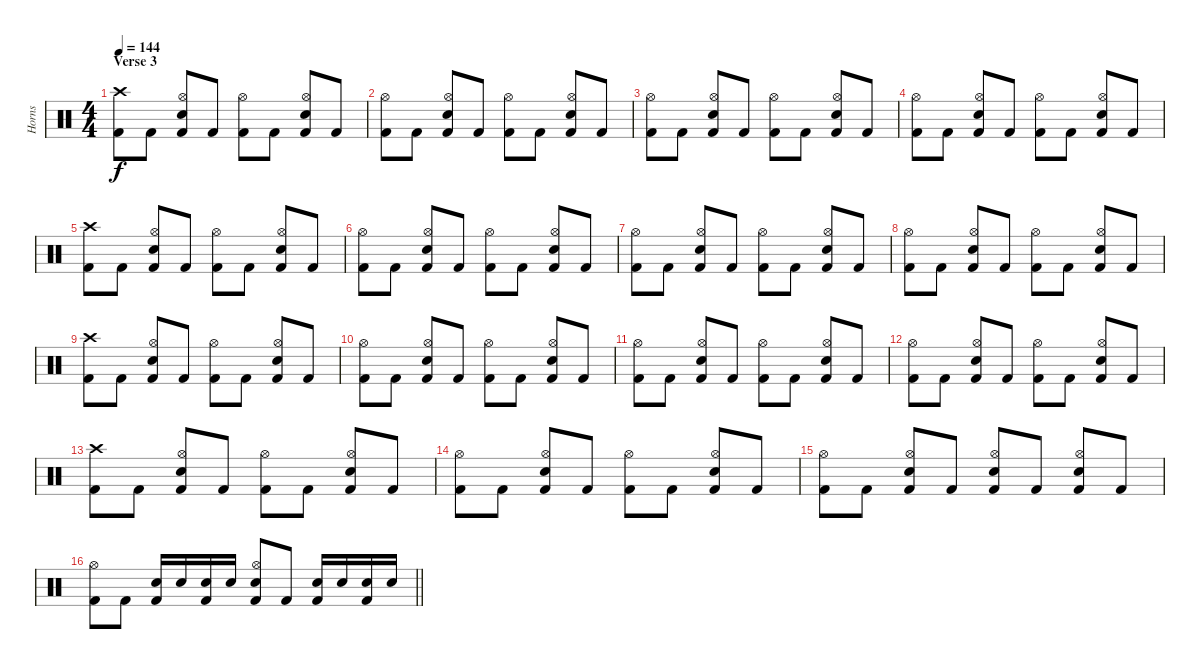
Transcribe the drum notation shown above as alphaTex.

\track ("Horns" "Horns") {instrument percussion}
\staff {score}
\articulation defaults
\ts (4 4)
\section ("" "Verse 3")
\tempo 144
\clef neutral
\ks c
("Crash high (hit)" "Kick (hit) 2").8{dy f} "Kick (hit) 2".8 ("Hi-Hat (open)" "Snare (hit) 2" "Kick (hit) 2").8 "Kick (hit) 2".8 ("Hi-Hat (open)" "Kick (hit) 2").8 "Kick (hit) 2".8 ("Hi-Hat (open)" "Snare (hit) 2" "Kick (hit) 2").8 "Kick (hit) 2".8 |
("Hi-Hat (open)" "Kick (hit) 2").8 "Kick (hit) 2".8 ("Hi-Hat (open)" "Snare (hit) 2" "Kick (hit) 2").8 "Kick (hit) 2".8 ("Hi-Hat (open)" "Kick (hit) 2").8 "Kick (hit) 2".8 ("Hi-Hat (open)" "Snare (hit) 2" "Kick (hit) 2").8 "Kick (hit) 2".8 |
("Hi-Hat (open)" "Kick (hit) 2").8 "Kick (hit) 2".8 ("Hi-Hat (open)" "Snare (hit) 2" "Kick (hit) 2").8 "Kick (hit) 2".8 ("Hi-Hat (open)" "Kick (hit) 2").8 "Kick (hit) 2".8 ("Hi-Hat (open)" "Snare (hit) 2" "Kick (hit) 2").8 "Kick (hit) 2".8 |
("Hi-Hat (open)" "Kick (hit) 2").8 "Kick (hit) 2".8 ("Hi-Hat (open)" "Snare (hit) 2" "Kick (hit) 2").8 "Kick (hit) 2".8 ("Hi-Hat (open)" "Kick (hit) 2").8 "Kick (hit) 2".8 ("Hi-Hat (open)" "Snare (hit) 2" "Kick (hit) 2").8 "Kick (hit) 2".8 |
("Crash high (hit)" "Kick (hit) 2").8 "Kick (hit) 2".8 ("Hi-Hat (open)" "Snare (hit) 2" "Kick (hit) 2").8 "Kick (hit) 2".8 ("Hi-Hat (open)" "Kick (hit) 2").8 "Kick (hit) 2".8 ("Hi-Hat (open)" "Snare (hit) 2" "Kick (hit) 2").8 "Kick (hit) 2".8 |
("Hi-Hat (open)" "Kick (hit) 2").8 "Kick (hit) 2".8 ("Hi-Hat (open)" "Snare (hit) 2" "Kick (hit) 2").8 "Kick (hit) 2".8 ("Hi-Hat (open)" "Kick (hit) 2").8 "Kick (hit) 2".8 ("Hi-Hat (open)" "Snare (hit) 2" "Kick (hit) 2").8 "Kick (hit) 2".8 |
("Hi-Hat (open)" "Kick (hit) 2").8 "Kick (hit) 2".8 ("Hi-Hat (open)" "Snare (hit) 2" "Kick (hit) 2").8 "Kick (hit) 2".8 ("Hi-Hat (open)" "Kick (hit) 2").8 "Kick (hit) 2".8 ("Hi-Hat (open)" "Snare (hit) 2" "Kick (hit) 2").8 "Kick (hit) 2".8 |
("Hi-Hat (open)" "Kick (hit) 2").8 "Kick (hit) 2".8 ("Hi-Hat (open)" "Snare (hit) 2" "Kick (hit) 2").8 "Kick (hit) 2".8 ("Hi-Hat (open)" "Kick (hit) 2").8 "Kick (hit) 2".8 ("Hi-Hat (open)" "Snare (hit) 2" "Kick (hit) 2").8 "Kick (hit) 2".8 |
("Crash high (hit)" "Kick (hit) 2").8 "Kick (hit) 2".8 ("Hi-Hat (open)" "Snare (hit) 2" "Kick (hit) 2").8 "Kick (hit) 2".8 ("Hi-Hat (open)" "Kick (hit) 2").8 "Kick (hit) 2".8 ("Hi-Hat (open)" "Snare (hit) 2" "Kick (hit) 2").8 "Kick (hit) 2".8 |
("Hi-Hat (open)" "Kick (hit) 2").8 "Kick (hit) 2".8 ("Hi-Hat (open)" "Snare (hit) 2" "Kick (hit) 2").8 "Kick (hit) 2".8 ("Hi-Hat (open)" "Kick (hit) 2").8 "Kick (hit) 2".8 ("Hi-Hat (open)" "Snare (hit) 2" "Kick (hit) 2").8 "Kick (hit) 2".8 |
("Hi-Hat (open)" "Kick (hit) 2").8 "Kick (hit) 2".8 ("Hi-Hat (open)" "Snare (hit) 2" "Kick (hit) 2").8 "Kick (hit) 2".8 ("Hi-Hat (open)" "Kick (hit) 2").8 "Kick (hit) 2".8 ("Hi-Hat (open)" "Snare (hit) 2" "Kick (hit) 2").8 "Kick (hit) 2".8 |
("Hi-Hat (open)" "Kick (hit) 2").8 "Kick (hit) 2".8 ("Hi-Hat (open)" "Snare (hit) 2" "Kick (hit) 2").8 "Kick (hit) 2".8 ("Hi-Hat (open)" "Kick (hit) 2").8 "Kick (hit) 2".8 ("Hi-Hat (open)" "Snare (hit) 2" "Kick (hit) 2").8 "Kick (hit) 2".8 |
("Crash high (hit)" "Kick (hit) 2").8 "Kick (hit) 2".8 ("Hi-Hat (open)" "Snare (hit) 2" "Kick (hit) 2").8 "Kick (hit) 2".8 ("Hi-Hat (open)" "Kick (hit) 2").8 "Kick (hit) 2".8 ("Hi-Hat (open)" "Snare (hit) 2" "Kick (hit) 2").8 "Kick (hit) 2".8 |
("Hi-Hat (open)" "Kick (hit) 2").8 "Kick (hit) 2".8 ("Hi-Hat (open)" "Snare (hit) 2" "Kick (hit) 2").8 "Kick (hit) 2".8 ("Hi-Hat (open)" "Kick (hit) 2").8 "Kick (hit) 2".8 ("Hi-Hat (open)" "Snare (hit) 2" "Kick (hit) 2").8 "Kick (hit) 2".8 |
("Hi-Hat (open)" "Kick (hit) 2").8 "Kick (hit) 2".8 ("Hi-Hat (open)" "Snare (hit) 2" "Kick (hit) 2").8 "Kick (hit) 2".8 ("Hi-Hat (open)" "Snare (hit) 2" "Kick (hit) 2").8 "Kick (hit) 2".8 ("Hi-Hat (open)" "Snare (hit) 2" "Kick (hit) 2").8 "Kick (hit) 2".8 |
\barLineRight lightlight
("Hi-Hat (open)" "Kick (hit) 2").8 "Kick (hit) 2".8 ("Snare (hit) 2" "Kick (hit) 2").16 "Snare (hit) 2".16 ("Snare (hit) 2" "Kick (hit) 2").16 "Snare (hit) 2".16 ("Hi-Hat (open)" "Snare (hit) 2" "Kick (hit) 2").8 "Kick (hit) 2".8 ("Snare (hit) 2" "Kick (hit) 2").16 "Snare (hit) 2".16 ("Snare (hit) 2" "Kick (hit) 2").16 "Snare (hit) 2".16
